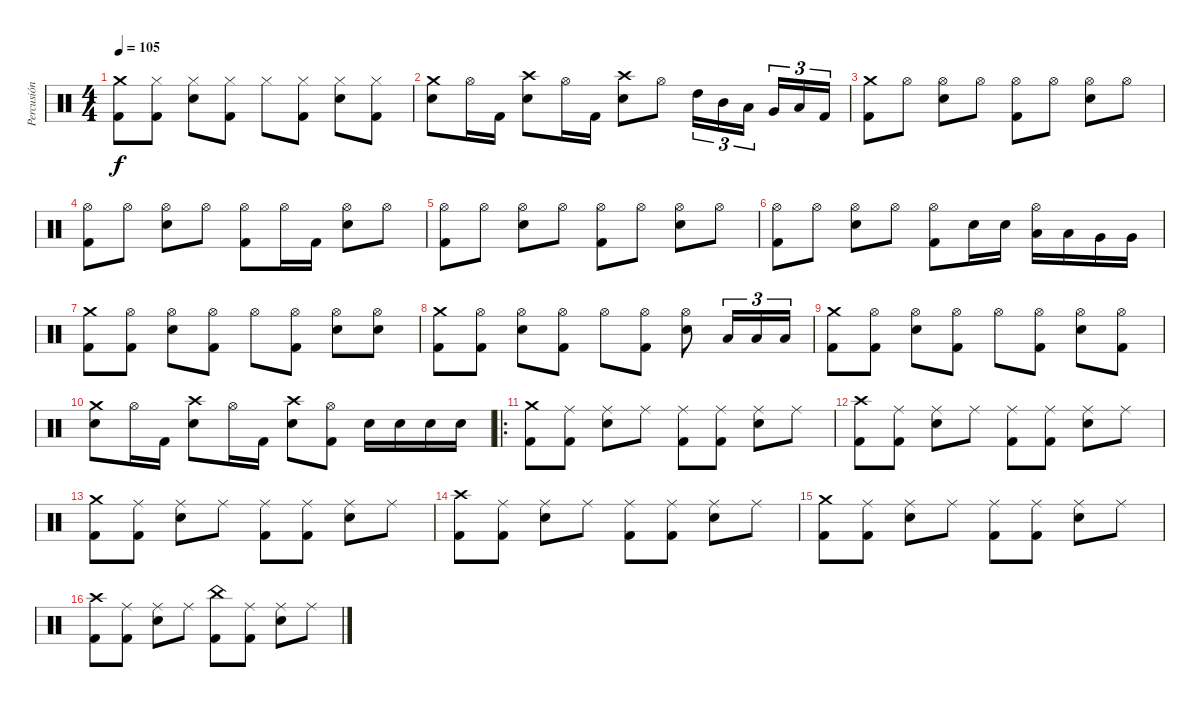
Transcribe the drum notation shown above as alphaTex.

\track ("Percusión" "Percusión") {instrument percussion}
\staff {score}
\articulation defaults
\ts (4 4)
\tempo 105
\clef neutral
\ks c
("Crash medium (hit)" "Kick (hit) 2").8{dy f} ("Hi-Hat (closed)" "Kick (hit) 2").8 ("Hi-Hat (closed)" "Snare (hit) 2").8 ("Hi-Hat (closed)" "Kick (hit) 2").8 "Hi-Hat (closed)".8 ("Hi-Hat (closed)" "Kick (hit) 2").8 ("Hi-Hat (closed)" "Snare (hit) 2").8 ("Hi-Hat (closed)" "Kick (hit) 2").8 |
("Crash medium (hit)" "Snare (hit) 2").8 "Hi-Hat (open)".16 "Kick (hit) 2".16 ("Crash high (hit)" "Snare (hit) 2").8 "Hi-Hat (open)".16 "Kick (hit) 2".16 ("Crash high (hit)" "Snare (hit) 2").8 "Hi-Hat (open)".8 "High Tom (hit)".16{tu (3 2)} "Mid Tom (hit)".16{tu (3 2)} "Low Tom (hit)".16{tu (3 2) beam splitsecondary} "Very Low Tom (hit)".16{tu (3 2)} "Low Floor Tom (hit)".16{tu (3 2)} "Kick (hit) 2".16{tu (3 2)} |
("Crash medium (hit)" "Kick (hit) 2").8 "Hi-Hat (open)".8 ("Hi-Hat (open)" "Snare (hit) 2").8 "Hi-Hat (open)".8 ("Hi-Hat (open)" "Kick (hit) 2").8 "Hi-Hat (open)".8 ("Hi-Hat (open)" "Snare (hit) 2").8 "Hi-Hat (open)".8 |
("Hi-Hat (open)" "Kick (hit) 2").8 "Hi-Hat (open)".8 ("Hi-Hat (open)" "Snare (hit) 2").8 "Hi-Hat (open)".8 ("Hi-Hat (open)" "Kick (hit) 2").8 "Hi-Hat (open)".16 "Kick (hit) 2".16 ("Hi-Hat (open)" "Snare (hit) 2").8 "Hi-Hat (open)".8 |
("Hi-Hat (open)" "Kick (hit) 2").8 "Hi-Hat (open)".8 ("Hi-Hat (open)" "Snare (hit) 2").8 "Hi-Hat (open)".8 ("Hi-Hat (open)" "Kick (hit) 2").8 "Hi-Hat (open)".8 ("Hi-Hat (open)" "Snare (hit) 2").8 "Hi-Hat (open)".8 |
("Hi-Hat (open)" "Kick (hit) 2").8 "Hi-Hat (open)".8 ("Hi-Hat (open)" "Snare (hit) 2").8 "Hi-Hat (open)".8 ("Hi-Hat (open)" "Kick (hit) 2").8 "Snare (hit) 2".16 "Snare (hit) 2".16 ("Hi-Hat (open)" "Low Tom (hit)").16 "Low Tom (hit)".16 "Very Low Tom (hit)".16 "Very Low Tom (hit)".16 |
("Crash medium (hit)" "Kick (hit) 2").8 ("Hi-Hat (open)" "Kick (hit) 2").8 ("Hi-Hat (open)" "Snare (hit) 2").8 ("Hi-Hat (open)" "Kick (hit) 2").8 "Hi-Hat (open)".8 ("Hi-Hat (open)" "Kick (hit) 2").8 ("Hi-Hat (open)" "Snare (hit) 2").8 ("Hi-Hat (open)" "Snare (hit) 2").8 |
("Crash medium (hit)" "Kick (hit) 2").8 ("Hi-Hat (open)" "Kick (hit) 2").8 ("Hi-Hat (open)" "Snare (hit) 2").8 ("Hi-Hat (open)" "Kick (hit) 2").8 "Hi-Hat (open)".8 ("Hi-Hat (open)" "Kick (hit) 2").8 ("Hi-Hat (open)" "Snare (hit) 2").8 "Low Tom (hit)".16{tu (3 2)} "Low Tom (hit)".16{tu (3 2)} "Low Tom (hit)".16{tu (3 2)} |
("Crash medium (hit)" "Kick (hit) 2").8 ("Hi-Hat (open)" "Kick (hit) 2").8 ("Hi-Hat (open)" "Snare (hit) 2").8 ("Hi-Hat (open)" "Kick (hit) 2").8 "Hi-Hat (open)".8 ("Hi-Hat (open)" "Kick (hit) 2").8 ("Hi-Hat (open)" "Snare (hit) 2").8 ("Hi-Hat (open)" "Kick (hit) 2").8 |
("Crash medium (hit)" "Snare (hit) 2").8 "Hi-Hat (open)".16 "Kick (hit) 2".16 ("Crash high (hit)" "Snare (hit) 2").8 "Hi-Hat (open)".16 "Kick (hit) 2".16 ("Crash high (hit)" "Snare (hit) 2").8 ("Hi-Hat (open)" "Kick (hit) 2").8 "Snare (hit) 2".16 "Snare (hit) 2".16 "Snare (hit) 2".16 "Snare (hit) 2".16 |
\ro
("Crash medium (hit)" "Kick (hit) 2").8 ("Ride (middle)" "Kick (hit) 2").8 ("Ride (middle)" "Snare (hit) 2").8 "Ride (middle)".8 ("Ride (middle)" "Kick (hit) 2").8 ("Ride (middle)" "Kick (hit) 2").8 ("Ride (middle)" "Snare (hit) 2").8 "Ride (middle)".8 |
("Crash high (hit)" "Kick (hit) 2").8 ("Ride (middle)" "Kick (hit) 2").8 ("Ride (middle)" "Snare (hit) 2").8 "Ride (middle)".8 ("Ride (middle)" "Kick (hit) 2").8 ("Ride (middle)" "Kick (hit) 2").8 ("Ride (middle)" "Snare (hit) 2").8 "Ride (middle)".8 |
("Crash medium (hit)" "Kick (hit) 2").8 ("Ride (middle)" "Kick (hit) 2").8 ("Ride (middle)" "Snare (hit) 2").8 "Ride (middle)".8 ("Ride (middle)" "Kick (hit) 2").8 ("Ride (middle)" "Kick (hit) 2").8 ("Ride (middle)" "Snare (hit) 2").8 "Ride (middle)".8 |
("Crash high (hit)" "Kick (hit) 2").8 ("Ride (middle)" "Kick (hit) 2").8 ("Ride (middle)" "Snare (hit) 2").8 "Ride (middle)".8 ("Ride (middle)" "Kick (hit) 2").8 ("Ride (middle)" "Kick (hit) 2").8 ("Ride (middle)" "Snare (hit) 2").8 "Ride (middle)".8 |
("Crash medium (hit)" "Kick (hit) 2").8 ("Ride (middle)" "Kick (hit) 2").8 ("Ride (middle)" "Snare (hit) 2").8 "Ride (middle)".8 ("Ride (middle)" "Kick (hit) 2").8 ("Ride (middle)" "Kick (hit) 2").8 ("Ride (middle)" "Snare (hit) 2").8 "Ride (middle)".8 |
("Crash high (hit)" "Kick (hit) 2").8 ("Ride (middle)" "Kick (hit) 2").8 ("Ride (middle)" "Snare (hit) 2").8 "Ride (middle)".8 ("China (hit)" "Kick (hit) 2").8 ("Ride (middle)" "Kick (hit) 2").8 ("Ride (middle)" "Snare (hit) 2").8 "Ride (middle)".8
